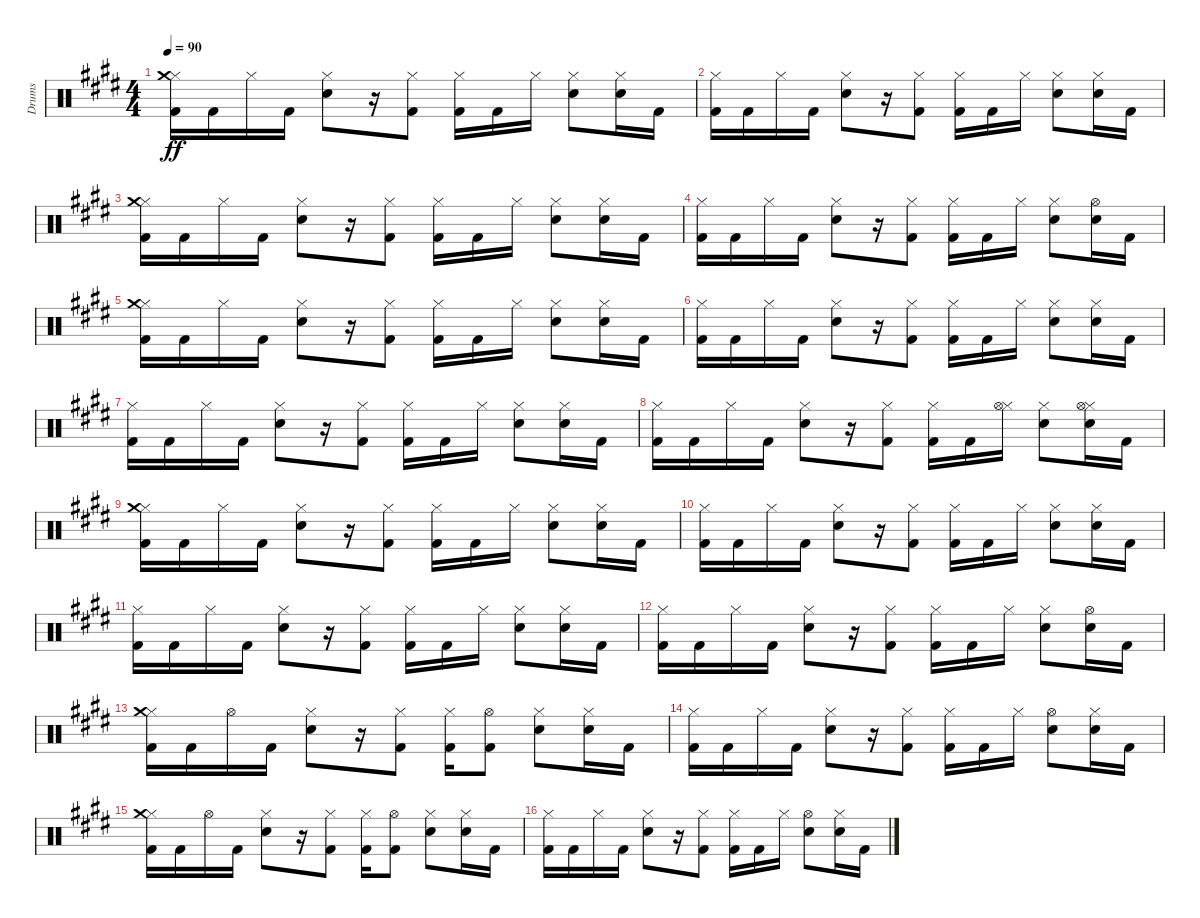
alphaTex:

\track ("Drums" "Drums") {instrument percussion}
\staff {score}
\articulation defaults
\ts (4 4)
\tempo 90
\clef neutral
\ks e
("Kick (hit) 2" "Hi-Hat (closed)" "Crash medium (hit)").16{dy ff} "Kick (hit) 2".16 "Hi-Hat (closed)".16 "Kick (hit) 2".16 ("Snare (hit) 2" "Hi-Hat (closed)").8 r.16 ("Kick (hit) 2" "Hi-Hat (closed)").8 ("Kick (hit) 2" "Hi-Hat (closed)").16 "Kick (hit) 2".16 "Hi-Hat (closed)".16 ("Snare (hit) 2" "Hi-Hat (closed)").8 ("Snare (hit) 2" "Hi-Hat (closed)").16 "Kick (hit) 2".16 |
("Kick (hit) 2" "Hi-Hat (closed)").16 "Kick (hit) 2".16 "Hi-Hat (closed)".16 "Kick (hit) 2".16 ("Snare (hit) 2" "Hi-Hat (closed)").8 r.16 ("Kick (hit) 2" "Hi-Hat (closed)").8 ("Kick (hit) 2" "Hi-Hat (closed)").16 "Kick (hit) 2".16 "Hi-Hat (closed)".16 ("Snare (hit) 2" "Hi-Hat (closed)").8 ("Snare (hit) 2" "Hi-Hat (closed)").16 "Kick (hit) 2".16 |
("Kick (hit) 2" "Hi-Hat (closed)" "Crash medium (hit)").16 "Kick (hit) 2".16 "Hi-Hat (closed)".16 "Kick (hit) 2".16 ("Snare (hit) 2" "Hi-Hat (closed)").8 r.16 ("Kick (hit) 2" "Hi-Hat (closed)").8 ("Kick (hit) 2" "Hi-Hat (closed)").16 "Kick (hit) 2".16 "Hi-Hat (closed)".16 ("Snare (hit) 2" "Hi-Hat (closed)").8 ("Snare (hit) 2" "Hi-Hat (closed)").16 "Kick (hit) 2".16 |
("Kick (hit) 2" "Hi-Hat (closed)").16 "Kick (hit) 2".16 "Hi-Hat (closed)".16 "Kick (hit) 2".16 ("Snare (hit) 2" "Hi-Hat (closed)").8 r.16 ("Kick (hit) 2" "Hi-Hat (closed)").8 ("Kick (hit) 2" "Hi-Hat (closed)").16 "Kick (hit) 2".16 "Hi-Hat (closed)".16 ("Snare (hit) 2" "Hi-Hat (closed)").8 ("Snare (hit) 2" "Hi-Hat (open)").16 "Kick (hit) 2".16 |
("Kick (hit) 2" "Hi-Hat (closed)" "Crash medium (hit)").16 "Kick (hit) 2".16 "Hi-Hat (closed)".16 "Kick (hit) 2".16 ("Snare (hit) 2" "Hi-Hat (closed)").8 r.16 ("Kick (hit) 2" "Hi-Hat (closed)").8 ("Kick (hit) 2" "Hi-Hat (closed)").16 "Kick (hit) 2".16 "Hi-Hat (closed)".16 ("Snare (hit) 2" "Hi-Hat (closed)").8 ("Snare (hit) 2" "Hi-Hat (closed)").16 "Kick (hit) 2".16 |
("Kick (hit) 2" "Hi-Hat (closed)").16 "Kick (hit) 2".16 "Hi-Hat (closed)".16 "Kick (hit) 2".16 ("Snare (hit) 2" "Hi-Hat (closed)").8 r.16 ("Kick (hit) 2" "Hi-Hat (closed)").8 ("Kick (hit) 2" "Hi-Hat (closed)").16 "Kick (hit) 2".16 "Hi-Hat (closed)".16 ("Snare (hit) 2" "Hi-Hat (closed)").8 ("Snare (hit) 2" "Hi-Hat (closed)").16 "Kick (hit) 2".16 |
("Kick (hit) 2" "Hi-Hat (closed)").16 "Kick (hit) 2".16 "Hi-Hat (closed)".16 "Kick (hit) 2".16 ("Snare (hit) 2" "Hi-Hat (closed)").8 r.16 ("Kick (hit) 2" "Hi-Hat (closed)").8 ("Kick (hit) 2" "Hi-Hat (closed)").16 "Kick (hit) 2".16 "Hi-Hat (closed)".16 ("Snare (hit) 2" "Hi-Hat (closed)").8 ("Snare (hit) 2" "Hi-Hat (closed)").16 "Kick (hit) 2".16 |
("Kick (hit) 2" "Hi-Hat (closed)").16 "Kick (hit) 2".16 "Hi-Hat (closed)".16 "Kick (hit) 2".16 ("Snare (hit) 2" "Hi-Hat (closed)").8 r.16 ("Kick (hit) 2" "Hi-Hat (closed)").8 ("Kick (hit) 2" "Hi-Hat (closed)").16 "Kick (hit) 2".16 ("Hi-Hat (closed)" "Hi-Hat (open)").16 ("Snare (hit) 2" "Hi-Hat (closed)").8 ("Snare (hit) 2" "Hi-Hat (closed)" "Hi-Hat (open)").16 "Kick (hit) 2".16 |
("Kick (hit) 2" "Hi-Hat (closed)" "Crash medium (hit)").16 "Kick (hit) 2".16 "Hi-Hat (closed)".16 "Kick (hit) 2".16 ("Snare (hit) 2" "Hi-Hat (closed)").8 r.16 ("Kick (hit) 2" "Hi-Hat (closed)").8 ("Kick (hit) 2" "Hi-Hat (closed)").16 "Kick (hit) 2".16 "Hi-Hat (closed)".16 ("Snare (hit) 2" "Hi-Hat (closed)").8 ("Snare (hit) 2" "Hi-Hat (closed)").16 "Kick (hit) 2".16 |
("Kick (hit) 2" "Hi-Hat (closed)").16 "Kick (hit) 2".16 "Hi-Hat (closed)".16 "Kick (hit) 2".16 ("Snare (hit) 2" "Hi-Hat (closed)").8 r.16 ("Kick (hit) 2" "Hi-Hat (closed)").8 ("Kick (hit) 2" "Hi-Hat (closed)").16 "Kick (hit) 2".16 "Hi-Hat (closed)".16 ("Snare (hit) 2" "Hi-Hat (closed)").8 ("Snare (hit) 2" "Hi-Hat (closed)").16 "Kick (hit) 2".16 |
("Kick (hit) 2" "Hi-Hat (closed)").16 "Kick (hit) 2".16 "Hi-Hat (closed)".16 "Kick (hit) 2".16 ("Snare (hit) 2" "Hi-Hat (closed)").8 r.16 ("Kick (hit) 2" "Hi-Hat (closed)").8 ("Kick (hit) 2" "Hi-Hat (closed)").16 "Kick (hit) 2".16 "Hi-Hat (closed)".16 ("Snare (hit) 2" "Hi-Hat (closed)").8 ("Snare (hit) 2" "Hi-Hat (closed)").16 "Kick (hit) 2".16 |
("Kick (hit) 2" "Hi-Hat (closed)").16 "Kick (hit) 2".16 "Hi-Hat (closed)".16 "Kick (hit) 2".16 ("Snare (hit) 2" "Hi-Hat (closed)").8 r.16 ("Kick (hit) 2" "Hi-Hat (closed)").8 ("Kick (hit) 2" "Hi-Hat (closed)").16 "Kick (hit) 2".16 "Hi-Hat (closed)".16 ("Snare (hit) 2" "Hi-Hat (closed)").8 ("Snare (hit) 2" "Hi-Hat (open)").16 "Kick (hit) 2".16 |
("Kick (hit) 2" "Hi-Hat (closed)" "Crash medium (hit)").16 "Kick (hit) 2".16 "Hi-Hat (open)".16 "Kick (hit) 2".16 ("Snare (hit) 2" "Hi-Hat (closed)").8 r.16 ("Kick (hit) 2" "Hi-Hat (closed)").8 ("Kick (hit) 2" "Hi-Hat (closed)").16 ("Kick (hit) 2" "Hi-Hat (open)").8 ("Snare (hit) 2" "Hi-Hat (closed)").8 ("Snare (hit) 2" "Hi-Hat (closed)").16 "Kick (hit) 2".16 |
("Kick (hit) 2" "Hi-Hat (closed)").16 "Kick (hit) 2".16 "Hi-Hat (closed)".16 "Kick (hit) 2".16 ("Snare (hit) 2" "Hi-Hat (closed)").8 r.16 ("Kick (hit) 2" "Hi-Hat (closed)").8 ("Kick (hit) 2" "Hi-Hat (closed)").16 "Kick (hit) 2".16 "Hi-Hat (closed)".16 ("Snare (hit) 2" "Hi-Hat (open)").8 ("Snare (hit) 2" "Hi-Hat (closed)").16 "Kick (hit) 2".16 |
("Kick (hit) 2" "Hi-Hat (closed)" "Crash medium (hit)").16 "Kick (hit) 2".16 "Hi-Hat (open)".16 "Kick (hit) 2".16 ("Snare (hit) 2" "Hi-Hat (closed)").8 r.16 ("Kick (hit) 2" "Hi-Hat (closed)").8 ("Kick (hit) 2" "Hi-Hat (closed)").16 ("Kick (hit) 2" "Hi-Hat (open)").8 ("Snare (hit) 2" "Hi-Hat (closed)").8 ("Snare (hit) 2" "Hi-Hat (closed)").16 "Kick (hit) 2".16 |
("Kick (hit) 2" "Hi-Hat (closed)").16 "Kick (hit) 2".16 "Hi-Hat (closed)".16 "Kick (hit) 2".16 ("Snare (hit) 2" "Hi-Hat (closed)").8 r.16 ("Kick (hit) 2" "Hi-Hat (closed)").8 ("Kick (hit) 2" "Hi-Hat (closed)").16 "Kick (hit) 2".16 "Hi-Hat (closed)".16 ("Snare (hit) 2" "Hi-Hat (open)").8 ("Snare (hit) 2" "Hi-Hat (closed)").16 "Kick (hit) 2".16
